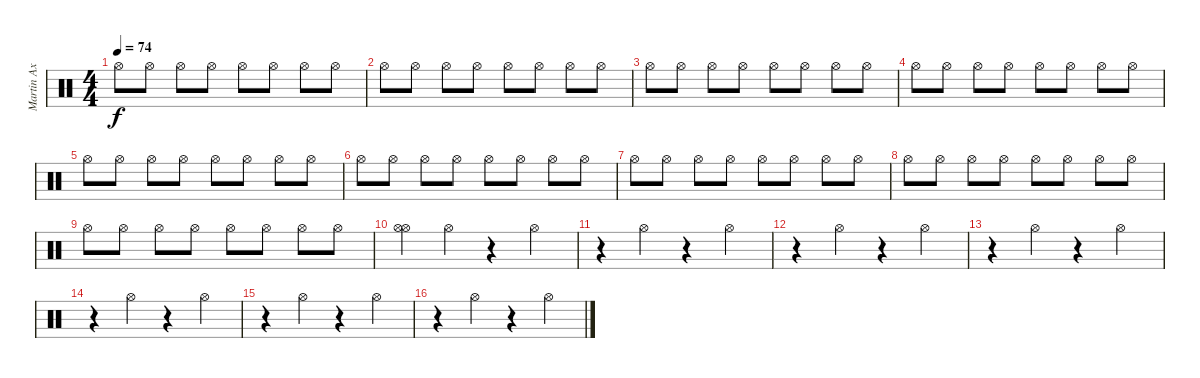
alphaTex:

\track (" Martin Axenrot - Cymbals" " Martin Ax") {instrument percussion}
\staff {score}
\articulation defaults
\ts (4 4)
\tempo 74
\clef neutral
\ks c "Hi-Hat (open)".8{dy f} "Hi-Hat (open)".8 "Hi-Hat (open)".8 "Hi-Hat (open)".8 "Hi-Hat (open)".8 "Hi-Hat (open)".8 "Hi-Hat (open)".8 "Hi-Hat (open)".8
|
"Hi-Hat (open)".8 "Hi-Hat (open)".8 "Hi-Hat (open)".8 "Hi-Hat (open)".8 "Hi-Hat (open)".8 "Hi-Hat (open)".8 "Hi-Hat (open)".8 "Hi-Hat (open)".8 |
"Hi-Hat (open)".8 "Hi-Hat (open)".8 "Hi-Hat (open)".8 "Hi-Hat (open)".8 "Hi-Hat (open)".8 "Hi-Hat (open)".8 "Hi-Hat (open)".8 "Hi-Hat (open)".8 |
"Hi-Hat (open)".8 "Hi-Hat (open)".8 "Hi-Hat (open)".8 "Hi-Hat (open)".8 "Hi-Hat (open)".8 "Hi-Hat (open)".8 "Hi-Hat (open)".8 "Hi-Hat (open)".8 |
"Hi-Hat (open)".8 "Hi-Hat (open)".8 "Hi-Hat (open)".8 "Hi-Hat (open)".8 "Hi-Hat (open)".8 "Hi-Hat (open)".8 "Hi-Hat (open)".8 "Hi-Hat (open)".8 |
"Hi-Hat (open)".8 "Hi-Hat (open)".8 "Hi-Hat (open)".8 "Hi-Hat (open)".8 "Hi-Hat (open)".8 "Hi-Hat (open)".8 "Hi-Hat (open)".8 "Hi-Hat (open)".8 |
"Hi-Hat (open)".8 "Hi-Hat (open)".8 "Hi-Hat (open)".8 "Hi-Hat (open)".8 "Hi-Hat (open)".8 "Hi-Hat (open)".8 "Hi-Hat (open)".8 "Hi-Hat (open)".8 |
"Hi-Hat (open)".8 "Hi-Hat (open)".8 "Hi-Hat (open)".8 "Hi-Hat (open)".8 "Hi-Hat (open)".8 "Hi-Hat (open)".8 "Hi-Hat (open)".8 "Hi-Hat (open)".8 |
"Hi-Hat (open)".8 "Hi-Hat (open)".8 "Hi-Hat (open)".8 "Hi-Hat (open)".8 "Hi-Hat (open)".8 "Hi-Hat (open)".8 "Hi-Hat (open)".8 "Hi-Hat (open)".8 |
("Hi-Hat (open)" "Hi-Hat (open)").4 "Hi-Hat (open)".4 r.4 "Hi-Hat (open)".4 |
r.4 "Hi-Hat (open)".4 r.4 "Hi-Hat (open)".4 |
r.4 "Hi-Hat (open)".4 r.4 "Hi-Hat (open)".4 |
r.4 "Hi-Hat (open)".4 r.4 "Hi-Hat (open)".4 |
r.4 "Hi-Hat (open)".4 r.4 "Hi-Hat (open)".4 |
r.4 "Hi-Hat (open)".4 r.4 "Hi-Hat (open)".4 |
r.4 "Hi-Hat (open)".4 r.4 "Hi-Hat (open)".4
